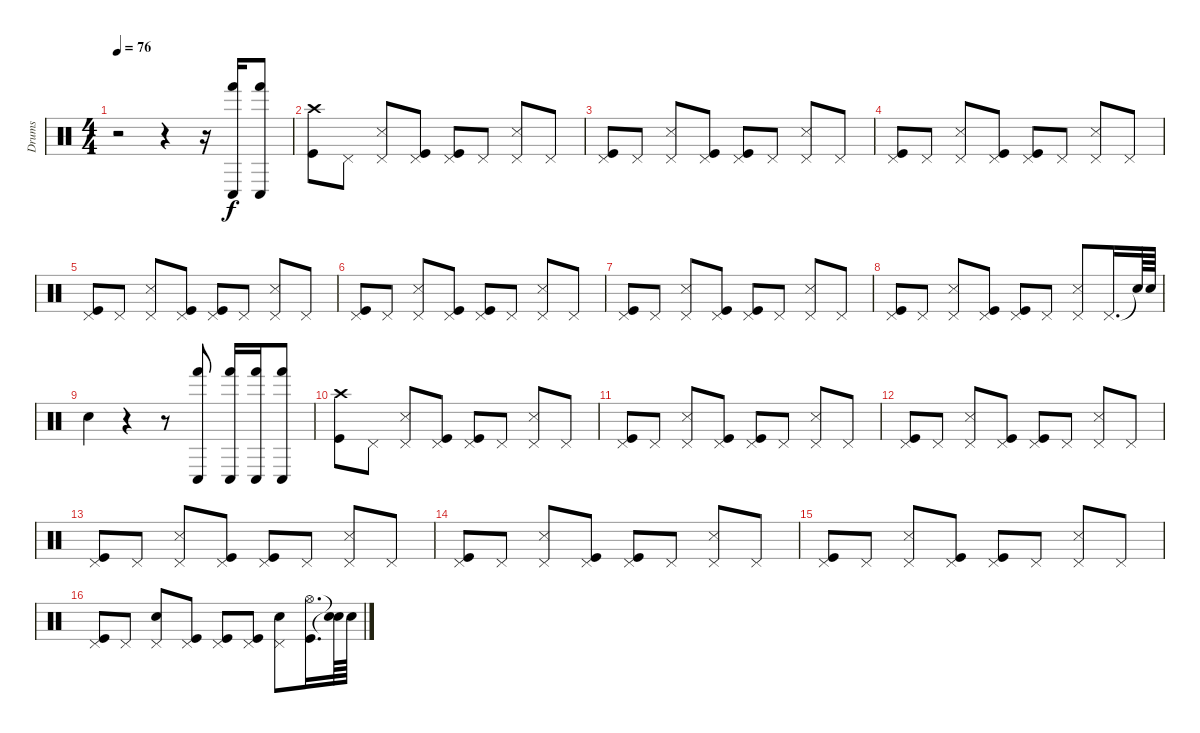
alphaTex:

\track ("Drums" "Drums") {instrument percussion}
\staff {score}
\articulation defaults
\ts (4 4)
\tempo 76
\clef neutral
\ks c
r.2{dy f} r.4 r.16 ("Conga low (hit)" "Hand (hit)").16 ("Hand (hit)" "Conga low (hit)").8 |
("Kick (hit)" "Crash high (hit)").8 "Pedal Hi-Hat (hit)".8 ("Snare (side stick) 3" "Pedal Hi-Hat (hit)").8 ("Kick (hit)" "Pedal Hi-Hat (hit)").8 ("Kick (hit)" "Pedal Hi-Hat (hit)").8 "Pedal Hi-Hat (hit)".8 ("Snare (side stick) 3" "Pedal Hi-Hat (hit)").8 "Pedal Hi-Hat (hit)".8 |
("Kick (hit)" "Pedal Hi-Hat (hit)").8 "Pedal Hi-Hat (hit)".8 ("Snare (side stick) 3" "Pedal Hi-Hat (hit)").8 ("Kick (hit)" "Pedal Hi-Hat (hit)").8 ("Kick (hit)" "Pedal Hi-Hat (hit)").8 "Pedal Hi-Hat (hit)".8 ("Snare (side stick) 3" "Pedal Hi-Hat (hit)").8 "Pedal Hi-Hat (hit)".8 |
("Pedal Hi-Hat (hit)" "Kick (hit)").8 "Pedal Hi-Hat (hit)".8 ("Snare (side stick) 3" "Pedal Hi-Hat (hit)").8 ("Kick (hit)" "Pedal Hi-Hat (hit)").8 ("Kick (hit)" "Pedal Hi-Hat (hit)").8 "Pedal Hi-Hat (hit)".8 ("Snare (side stick) 3" "Pedal Hi-Hat (hit)").8 "Pedal Hi-Hat (hit)".8 |
("Pedal Hi-Hat (hit)" "Kick (hit)").8 "Pedal Hi-Hat (hit)".8 ("Snare (side stick) 3" "Pedal Hi-Hat (hit)").8 ("Kick (hit)" "Pedal Hi-Hat (hit)").8 ("Kick (hit)" "Pedal Hi-Hat (hit)").8 "Pedal Hi-Hat (hit)".8 ("Snare (side stick) 3" "Pedal Hi-Hat (hit)").8 "Pedal Hi-Hat (hit)".8 |
("Pedal Hi-Hat (hit)" "Kick (hit)").8 "Pedal Hi-Hat (hit)".8 ("Snare (side stick) 3" "Pedal Hi-Hat (hit)").8 ("Kick (hit)" "Pedal Hi-Hat (hit)").8 ("Kick (hit)" "Pedal Hi-Hat (hit)").8 "Pedal Hi-Hat (hit)".8 ("Snare (side stick) 3" "Pedal Hi-Hat (hit)").8 "Pedal Hi-Hat (hit)".8 |
("Pedal Hi-Hat (hit)" "Kick (hit)").8 "Pedal Hi-Hat (hit)".8 ("Snare (side stick) 3" "Pedal Hi-Hat (hit)").8 ("Kick (hit)" "Pedal Hi-Hat (hit)").8 ("Kick (hit)" "Pedal Hi-Hat (hit)").8 "Pedal Hi-Hat (hit)".8 ("Snare (side stick) 3" "Pedal Hi-Hat (hit)").8 "Pedal Hi-Hat (hit)".8 |
("Pedal Hi-Hat (hit)" "Kick (hit)").8 "Pedal Hi-Hat (hit)".8 ("Snare (side stick) 3" "Pedal Hi-Hat (hit)").8 ("Kick (hit)" "Pedal Hi-Hat (hit)").8 ("Kick (hit)" "Pedal Hi-Hat (hit)").8 "Pedal Hi-Hat (hit)".8 ("Snare (side stick) 3" "Pedal Hi-Hat (hit)").8 "Pedal Hi-Hat (hit)".16{d} "Snare (hit)"{t}.64 "Electric Snare (hit)".64 |
"Electric Snare (hit)".4 r.4 r.8 ("Hand (hit)" "Conga low (hit)").8 ("Conga low (hit)" "Hand (hit)").16 ("Conga low (hit)" "Hand (hit)").16 ("Conga low (hit)" "Hand (hit)").8 |
("Crash high (hit)" "Kick (hit)").8 "Pedal Hi-Hat (hit)".8 ("Snare (side stick) 3" "Pedal Hi-Hat (hit)").8 ("Kick (hit)" "Pedal Hi-Hat (hit)").8 ("Kick (hit)" "Pedal Hi-Hat (hit)").8 "Pedal Hi-Hat (hit)".8 ("Snare (side stick) 3" "Pedal Hi-Hat (hit)").8 "Pedal Hi-Hat (hit)".8 |
("Kick (hit)" "Pedal Hi-Hat (hit)").8 "Pedal Hi-Hat (hit)".8 ("Snare (side stick) 3" "Pedal Hi-Hat (hit)").8 ("Kick (hit)" "Pedal Hi-Hat (hit)").8 ("Kick (hit)" "Pedal Hi-Hat (hit)").8 "Pedal Hi-Hat (hit)".8 ("Snare (side stick) 3" "Pedal Hi-Hat (hit)").8 "Pedal Hi-Hat (hit)".8 |
("Pedal Hi-Hat (hit)" "Kick (hit)").8 "Pedal Hi-Hat (hit)".8 ("Snare (side stick) 3" "Pedal Hi-Hat (hit)").8 ("Kick (hit)" "Pedal Hi-Hat (hit)").8 ("Kick (hit)" "Pedal Hi-Hat (hit)").8 "Pedal Hi-Hat (hit)".8 ("Snare (side stick) 3" "Pedal Hi-Hat (hit)").8 "Pedal Hi-Hat (hit)".8 |
("Pedal Hi-Hat (hit)" "Kick (hit)").8 "Pedal Hi-Hat (hit)".8 ("Snare (side stick) 3" "Pedal Hi-Hat (hit)").8 ("Kick (hit)" "Pedal Hi-Hat (hit)").8 ("Kick (hit)" "Pedal Hi-Hat (hit)").8 "Pedal Hi-Hat (hit)".8 ("Snare (side stick) 3" "Pedal Hi-Hat (hit)").8 "Pedal Hi-Hat (hit)".8 |
("Pedal Hi-Hat (hit)" "Kick (hit)").8 "Pedal Hi-Hat (hit)".8 ("Snare (side stick) 3" "Pedal Hi-Hat (hit)").8 ("Kick (hit)" "Pedal Hi-Hat (hit)").8 ("Kick (hit)" "Pedal Hi-Hat (hit)").8 "Pedal Hi-Hat (hit)".8 ("Snare (side stick) 3" "Pedal Hi-Hat (hit)").8 "Pedal Hi-Hat (hit)".8 |
("Pedal Hi-Hat (hit)" "Kick (hit)").8 "Pedal Hi-Hat (hit)".8 ("Snare (side stick) 3" "Pedal Hi-Hat (hit)").8 ("Kick (hit)" "Pedal Hi-Hat (hit)").8 ("Kick (hit)" "Pedal Hi-Hat (hit)").8 "Pedal Hi-Hat (hit)".8 ("Snare (side stick) 3" "Pedal Hi-Hat (hit)").8 "Pedal Hi-Hat (hit)".8 |
("Kick (hit)" "Pedal Hi-Hat (hit)").8 "Pedal Hi-Hat (hit)".8 ("Pedal Hi-Hat (hit)" "Electric Snare (hit)").8 ("Kick (hit)" "Pedal Hi-Hat (hit)").8 ("Pedal Hi-Hat (hit)" "Kick (hit)").8 ("Pedal Hi-Hat (hit)" "Kick (hit)").8 ("Pedal Hi-Hat (hit)" "Electric Snare (hit)").8 ("Hi-Hat (open)" "Kick (hit)").16{d} ("Snare (hit)"{t} "Snare (hit)"{t}).64 "Electric Snare (hit)".64
